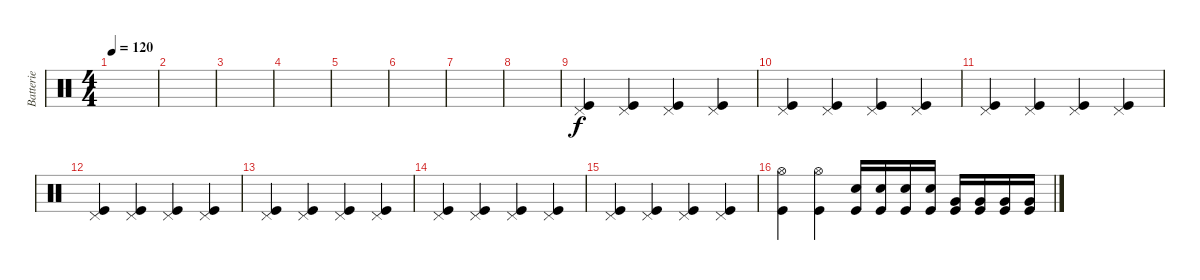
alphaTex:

\track ("Batterie" "Batterie") {instrument percussion}
\staff {score}
\articulation defaults
\ts (4 4)
\tempo 120
\clef neutral
\ks c
|
|
|
|
|
|
|
|
("Pedal Hi-Hat (hit)" "Kick (hit)").4 ("Pedal Hi-Hat (hit)" "Kick (hit)").4 ("Pedal Hi-Hat (hit)" "Kick (hit)").4 ("Pedal Hi-Hat (hit)" "Kick (hit)").4 |
("Pedal Hi-Hat (hit)" "Kick (hit)").4 ("Pedal Hi-Hat (hit)" "Kick (hit)").4 ("Pedal Hi-Hat (hit)" "Kick (hit)").4 ("Pedal Hi-Hat (hit)" "Kick (hit)").4 |
("Pedal Hi-Hat (hit)" "Kick (hit)").4 ("Pedal Hi-Hat (hit)" "Kick (hit)").4 ("Pedal Hi-Hat (hit)" "Kick (hit)").4 ("Pedal Hi-Hat (hit)" "Kick (hit)").4 |
("Pedal Hi-Hat (hit)" "Kick (hit)").4 ("Pedal Hi-Hat (hit)" "Kick (hit)").4 ("Pedal Hi-Hat (hit)" "Kick (hit)").4 ("Pedal Hi-Hat (hit)" "Kick (hit)").4 |
("Pedal Hi-Hat (hit)" "Kick (hit)").4 ("Pedal Hi-Hat (hit)" "Kick (hit)").4 ("Pedal Hi-Hat (hit)" "Kick (hit)").4 ("Pedal Hi-Hat (hit)" "Kick (hit)").4 |
("Pedal Hi-Hat (hit)" "Kick (hit)").4 ("Pedal Hi-Hat (hit)" "Kick (hit)").4 ("Pedal Hi-Hat (hit)" "Kick (hit)").4 ("Pedal Hi-Hat (hit)" "Kick (hit)").4 |
("Pedal Hi-Hat (hit)" "Kick (hit)").4 ("Pedal Hi-Hat (hit)" "Kick (hit)").4 ("Pedal Hi-Hat (hit)" "Kick (hit)").4 ("Pedal Hi-Hat (hit)" "Kick (hit)").4 |
("Hi-Hat (open)" "Kick (hit)").4 ("Hi-Hat (open)" "Kick (hit)").4 ("Snare (hit) 2" "Kick (hit)").16 ("Snare (hit) 2" "Kick (hit)").16 ("Snare (hit) 2" "Kick (hit)").16 ("Snare (hit) 2" "Kick (hit)").16 ("Very Low Tom (hit)" "Kick (hit)").16 ("Very Low Tom (hit)" "Kick (hit)").16 ("Very Low Tom (hit)" "Kick (hit)").16 ("Very Low Tom (hit)" "Kick (hit)").16
